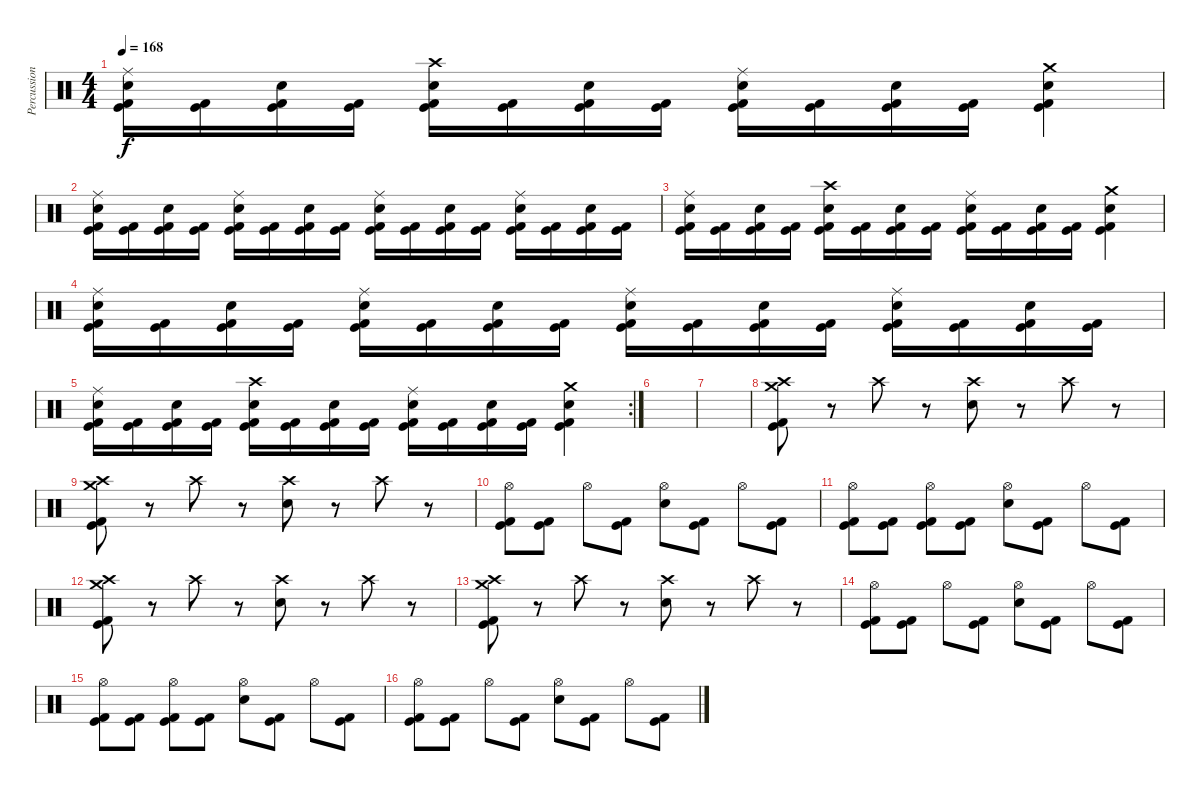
\track ("Percussion" "Percussion") {instrument percussion}
\staff {score}
\articulation defaults
\ts (4 4)
\tempo 168
\clef neutral
\ks c
("Ride (middle)" "Electric Snare (hit)" "Kick (hit) 2" "Kick (hit)").16{dy f} ("Kick (hit) 2" "Kick (hit)").16 ("Electric Snare (hit)" "Kick (hit) 2" "Kick (hit)").16 ("Kick (hit) 2" "Kick (hit)").16 ("Crash high (hit)" "Electric Snare (hit)" "Kick (hit) 2" "Kick (hit)").16 ("Kick (hit) 2" "Kick (hit)").16 ("Electric Snare (hit)" "Kick (hit) 2" "Kick (hit)").16 ("Kick (hit) 2" "Kick (hit)").16 ("Ride (middle)" "Electric Snare (hit)" "Kick (hit) 2" "Kick (hit)").16 ("Kick (hit) 2" "Kick (hit)").16 ("Electric Snare (hit)" "Kick (hit) 2" "Kick (hit)").16 ("Kick (hit) 2" "Kick (hit)").16 ("Crash medium (hit)" "Electric Snare (hit)" "Kick (hit) 2" "Kick (hit)").4 |
("Ride (middle)" "Electric Snare (hit)" "Kick (hit) 2" "Kick (hit)").16 ("Kick (hit) 2" "Kick (hit)").16 ("Electric Snare (hit)" "Kick (hit) 2" "Kick (hit)").16 ("Kick (hit) 2" "Kick (hit)").16 ("Ride (middle)" "Electric Snare (hit)" "Kick (hit) 2" "Kick (hit)").16 ("Kick (hit) 2" "Kick (hit)").16 ("Electric Snare (hit)" "Kick (hit) 2" "Kick (hit)").16 ("Kick (hit) 2" "Kick (hit)").16 ("Ride (middle)" "Electric Snare (hit)" "Kick (hit) 2" "Kick (hit)").16 ("Kick (hit) 2" "Kick (hit)").16 ("Electric Snare (hit)" "Kick (hit) 2" "Kick (hit)").16 ("Kick (hit) 2" "Kick (hit)").16 ("Ride (middle)" "Electric Snare (hit)" "Kick (hit) 2" "Kick (hit)").16 ("Kick (hit) 2" "Kick (hit)").16 ("Electric Snare (hit)" "Kick (hit) 2" "Kick (hit)").16 ("Kick (hit) 2" "Kick (hit)").16 |
("Ride (middle)" "Electric Snare (hit)" "Kick (hit) 2" "Kick (hit)").16 ("Kick (hit) 2" "Kick (hit)").16 ("Electric Snare (hit)" "Kick (hit) 2" "Kick (hit)").16 ("Kick (hit) 2" "Kick (hit)").16 ("Crash high (hit)" "Electric Snare (hit)" "Kick (hit) 2" "Kick (hit)").16 ("Kick (hit) 2" "Kick (hit)").16 ("Electric Snare (hit)" "Kick (hit) 2" "Kick (hit)").16 ("Kick (hit) 2" "Kick (hit)").16 ("Ride (middle)" "Electric Snare (hit)" "Kick (hit) 2" "Kick (hit)").16 ("Kick (hit) 2" "Kick (hit)").16 ("Electric Snare (hit)" "Kick (hit) 2" "Kick (hit)").16 ("Kick (hit) 2" "Kick (hit)").16 ("Crash medium (hit)" "Electric Snare (hit)" "Kick (hit) 2" "Kick (hit)").4 |
("Ride (middle)" "Electric Snare (hit)" "Kick (hit) 2" "Kick (hit)").16 ("Kick (hit) 2" "Kick (hit)").16 ("Electric Snare (hit)" "Kick (hit) 2" "Kick (hit)").16 ("Kick (hit) 2" "Kick (hit)").16 ("Ride (middle)" "Electric Snare (hit)" "Kick (hit) 2" "Kick (hit)").16 ("Kick (hit) 2" "Kick (hit)").16 ("Electric Snare (hit)" "Kick (hit) 2" "Kick (hit)").16 ("Kick (hit) 2" "Kick (hit)").16 ("Ride (middle)" "Electric Snare (hit)" "Kick (hit) 2" "Kick (hit)").16 ("Kick (hit) 2" "Kick (hit)").16 ("Electric Snare (hit)" "Kick (hit) 2" "Kick (hit)").16 ("Kick (hit) 2" "Kick (hit)").16 ("Ride (middle)" "Electric Snare (hit)" "Kick (hit) 2" "Kick (hit)").16 ("Kick (hit) 2" "Kick (hit)").16 ("Electric Snare (hit)" "Kick (hit) 2" "Kick (hit)").16 ("Kick (hit) 2" "Kick (hit)").16 |
\rc 2
("Ride (middle)" "Electric Snare (hit)" "Kick (hit) 2" "Kick (hit)").16 ("Kick (hit) 2" "Kick (hit)").16 ("Electric Snare (hit)" "Kick (hit) 2" "Kick (hit)").16 ("Kick (hit) 2" "Kick (hit)").16 ("Crash high (hit)" "Electric Snare (hit)" "Kick (hit) 2" "Kick (hit)").16 ("Kick (hit) 2" "Kick (hit)").16 ("Electric Snare (hit)" "Kick (hit) 2" "Kick (hit)").16 ("Kick (hit) 2" "Kick (hit)").16 ("Ride (middle)" "Electric Snare (hit)" "Kick (hit) 2" "Kick (hit)").16 ("Kick (hit) 2" "Kick (hit)").16 ("Electric Snare (hit)" "Kick (hit) 2" "Kick (hit)").16 ("Kick (hit) 2" "Kick (hit)").16 ("Crash medium (hit)" "Electric Snare (hit)" "Kick (hit) 2" "Kick (hit)").4 |
|
|
("Crash high (hit)" "Crash medium (hit)" "Kick (hit) 2" "Kick (hit)").8 r.8 "Crash high (hit)".8 r.8 ("Crash high (hit)" "Electric Snare (hit)").8 r.8 "Crash high (hit)".8 r.8 |
("Crash high (hit)" "Crash medium (hit)" "Kick (hit) 2" "Kick (hit)").8 r.8 "Crash high (hit)".8 r.8 ("Crash high (hit)" "Electric Snare (hit)").8 r.8 "Crash high (hit)".8 r.8 |
("Hi-Hat (open)" "Kick (hit) 2" "Kick (hit)").8 ("Kick (hit) 2" "Kick (hit)").8 "Hi-Hat (open)".8 ("Kick (hit) 2" "Kick (hit)").8 ("Hi-Hat (open)" "Electric Snare (hit)").8 ("Kick (hit) 2" "Kick (hit)").8 "Hi-Hat (open)".8 ("Kick (hit) 2" "Kick (hit)").8 |
("Hi-Hat (open)" "Kick (hit) 2" "Kick (hit)").8 ("Kick (hit) 2" "Kick (hit)").8 ("Hi-Hat (open)" "Kick (hit) 2" "Kick (hit)").8 ("Kick (hit) 2" "Kick (hit)").8 ("Hi-Hat (open)" "Electric Snare (hit)").8 ("Kick (hit) 2" "Kick (hit)").8 "Hi-Hat (open)".8 ("Kick (hit) 2" "Kick (hit)").8 |
("Crash high (hit)" "Crash medium (hit)" "Kick (hit) 2" "Kick (hit)").8 r.8 "Crash high (hit)".8 r.8 ("Crash high (hit)" "Electric Snare (hit)").8 r.8 "Crash high (hit)".8 r.8 |
("Crash high (hit)" "Crash medium (hit)" "Kick (hit) 2" "Kick (hit)").8 r.8 "Crash high (hit)".8 r.8 ("Crash high (hit)" "Electric Snare (hit)").8 r.8 "Crash high (hit)".8 r.8 |
("Hi-Hat (open)" "Kick (hit) 2" "Kick (hit)").8 ("Kick (hit) 2" "Kick (hit)").8 "Hi-Hat (open)".8 ("Kick (hit) 2" "Kick (hit)").8 ("Hi-Hat (open)" "Electric Snare (hit)").8 ("Kick (hit) 2" "Kick (hit)").8 "Hi-Hat (open)".8 ("Kick (hit) 2" "Kick (hit)").8 |
("Hi-Hat (open)" "Kick (hit) 2" "Kick (hit)").8 ("Kick (hit) 2" "Kick (hit)").8 ("Hi-Hat (open)" "Kick (hit) 2" "Kick (hit)").8 ("Kick (hit) 2" "Kick (hit)").8 ("Hi-Hat (open)" "Electric Snare (hit)").8 ("Kick (hit) 2" "Kick (hit)").8 "Hi-Hat (open)".8 ("Kick (hit) 2" "Kick (hit)").8 |
("Hi-Hat (open)" "Kick (hit) 2" "Kick (hit)").8 ("Kick (hit) 2" "Kick (hit)").8 "Hi-Hat (open)".8 ("Kick (hit) 2" "Kick (hit)").8 ("Hi-Hat (open)" "Electric Snare (hit)").8 ("Kick (hit) 2" "Kick (hit)").8 "Hi-Hat (open)".8 ("Kick (hit) 2" "Kick (hit)").8
